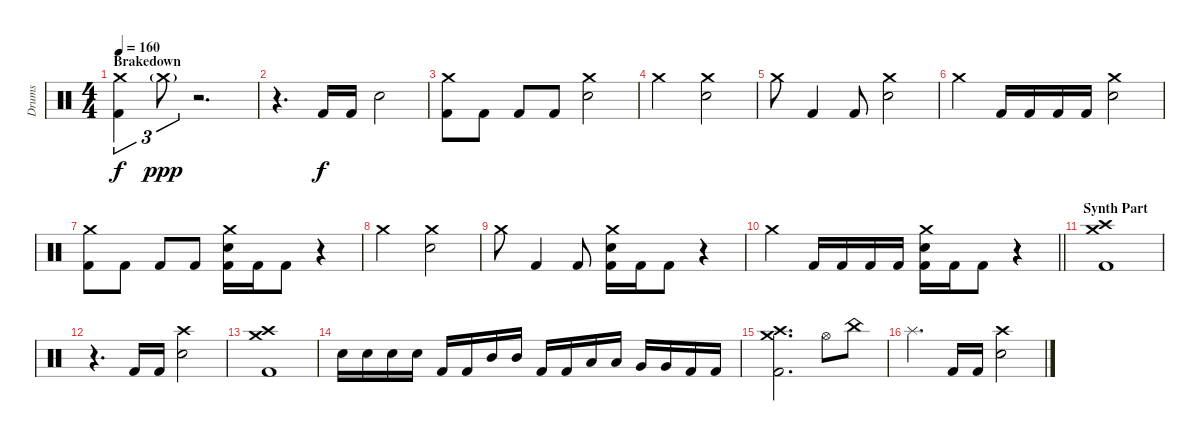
\track ("Drums" "Drums") {instrument percussion}
\staff {score}
\articulation defaults
\ts (4 4)
\section ("" "Brakedown")
\tempo 160
\clef neutral
\ks c
("Crash medium (hit)" "Kick (hit) 2").4{tu (3 2) dy f} "Crash medium (hit)"{g}.8{tu (3 2) dy ppp} r.2{d} |
r.4{d} "Kick (hit) 2".16{dy f} "Kick (hit) 2".16 "Electric Snare (hit)".2 |
("Crash medium (hit)" "Kick (hit) 2").8 "Kick (hit) 2".8 "Kick (hit) 2".8 "Kick (hit) 2".8 ("Crash medium (hit)" "Electric Snare (hit)").2 |
"Crash medium (hit)".2 ("Crash medium (hit)" "Electric Snare (hit)").2 |
"Crash medium (hit)".8 "Kick (hit) 2".4 "Kick (hit) 2".8 ("Crash medium (hit)" "Electric Snare (hit)").2 |
"Crash medium (hit)".4 "Kick (hit) 2".16 "Kick (hit) 2".16 "Kick (hit) 2".16 "Kick (hit) 2".16 ("Crash medium (hit)" "Electric Snare (hit)").2 |
("Crash medium (hit)" "Kick (hit) 2").8 "Kick (hit) 2".8 "Kick (hit) 2".8 "Kick (hit) 2".8 ("Crash medium (hit)" "Electric Snare (hit)" "Kick (hit) 2").16 "Kick (hit) 2".16 "Kick (hit) 2".8 r.4 |
"Crash medium (hit)".2 ("Crash medium (hit)" "Electric Snare (hit)").2 |
"Crash medium (hit)".8 "Kick (hit) 2".4 "Kick (hit) 2".8 ("Crash medium (hit)" "Electric Snare (hit)" "Kick (hit) 2").16 "Kick (hit) 2".16 "Kick (hit) 2".8 r.4 |
\barLineRight lightlight "Crash medium (hit)".4 "Kick (hit) 2".16 "Kick (hit) 2".16 "Kick (hit) 2".16 "Kick (hit) 2".16
("Crash medium (hit)" "Electric Snare (hit)" "Kick (hit) 2").16 "Kick (hit) 2".16 "Kick (hit) 2".8 r.4 |
\section ("" "Synth Part")
("Crash medium (hit)" "Crash high (hit)" "Kick (hit) 2").1 |
r.4{d} "Kick (hit) 2".16 "Kick (hit) 2".16 ("Crash high (hit)" "Electric Snare (hit)").2 |
("Crash medium (hit)" "Crash high (hit)" "Kick (hit) 2").1 |
"Electric Snare (hit)".16 "Electric Snare (hit)".16 "Electric Snare (hit)".16 "Electric Snare (hit)".16 "Kick (hit) 2".16 "Kick (hit) 2".16 "Mid Tom (hit)".16 "Mid Tom (hit)".16 "Kick (hit) 2".16 "Kick (hit) 2".16 "Low Tom (hit)".16 "Low Tom (hit)".16 "Very Low Tom (hit)".16 "Very Low Tom (hit)".16 "Kick (hit) 2".16 "Kick (hit) 2".16 |
("Crash medium (hit)" "Crash high (hit)" "Kick (hit) 2").2{d} "Hi-Hat (open)".8 "China (hit)".8 |
"Splash (hit)".4{d} "Kick (hit) 2".16 "Kick (hit) 2".16 ("Crash high (hit)" "Electric Snare (hit)").2
